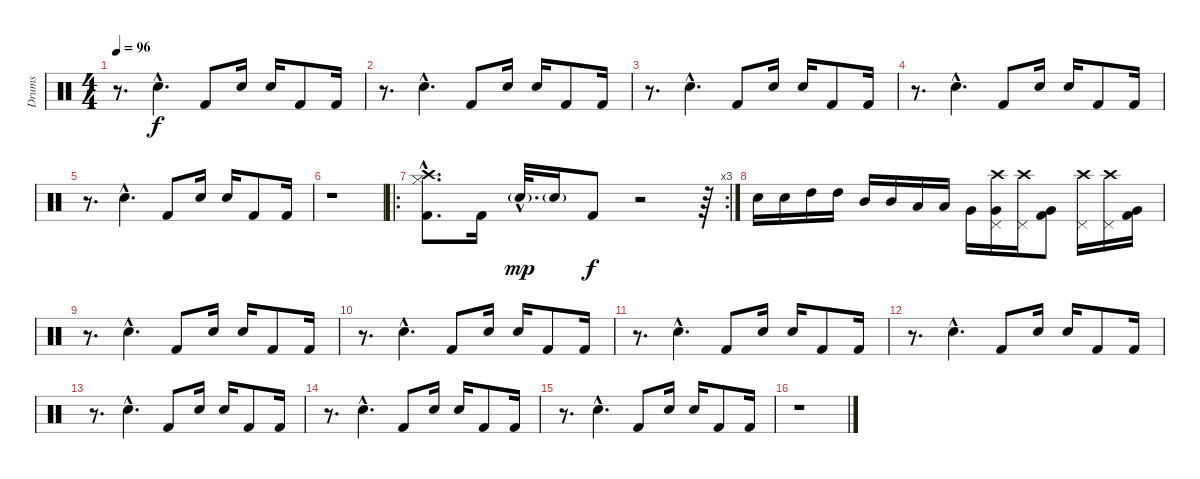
\track ("Drums" "Drums") {instrument percussion}
\staff {score}
\articulation defaults
\ts (4 4)
\tempo 96
\clef neutral
\ks c
r.8{d dy f} "Snare (hit) 2"{hac}.4{d} "Kick (hit) 2".8 "Snare (hit) 2".16 "Snare (hit) 2".16 "Kick (hit) 2".8 "Kick (hit) 2".16 |
r.8{d} "Snare (hit) 2"{hac}.4{d} "Kick (hit) 2".8 "Snare (hit) 2".16 "Snare (hit) 2".16 "Kick (hit) 2".8 "Kick (hit) 2".16 |
r.8{d} "Snare (hit) 2"{hac}.4{d} "Kick (hit) 2".8 "Snare (hit) 2".16 "Snare (hit) 2".16 "Kick (hit) 2".8 "Kick (hit) 2".16 |
r.8{d} "Snare (hit) 2"{hac}.4{d} "Kick (hit) 2".8 "Snare (hit) 2".16 "Snare (hit) 2".16 "Kick (hit) 2".8 "Kick (hit) 2".16 |
r.8{d} "Snare (hit) 2"{hac}.4{d} "Kick (hit) 2".8 "Snare (hit) 2".16 "Snare (hit) 2".16 "Kick (hit) 2".8 "Kick (hit) 2".16 |
r.1 |
\ro
\rc 3
("Kick (hit) 2"{hac} "Crash high (hit)"{hac} "Hi-Hat (closed)"{hac}).8{d} "Kick (hit) 2".16 "Snare (hit) 2"{g hac}.32{d dy mp} "Snare (hit) 2"{g}.16 "Kick (hit) 2".8{dy f} r.2 r.64 |
"Electric Snare (hit)".16 "Electric Snare (hit)".16 "High Tom (hit)".16 "High Tom (hit)".16 "Mid Tom (hit)".16 "Mid Tom (hit)".16 "Low Tom (hit)".16 "Low Tom (hit)".16 "Very Low Tom (hit)".16 ("Very Low Tom (hit)" "Crash high (hit)" "Pedal Hi-Hat (hit)").16 ("Crash high (hit)" "Pedal Hi-Hat (hit)").16 ("Kick (hit) 2" "Very Low Tom (hit)").8 ("Crash high (hit)" "Pedal Hi-Hat (hit)").16 ("Crash high (hit)" "Pedal Hi-Hat (hit)").16 ("Kick (hit) 2" "Very Low Tom (hit)").16 |
r.8{d} "Snare (hit) 2"{hac}.4{d} "Kick (hit) 2".8 "Snare (hit) 2".16 "Snare (hit) 2".16 "Kick (hit) 2".8 "Kick (hit) 2".16 |
r.8{d} "Snare (hit) 2"{hac}.4{d} "Kick (hit) 2".8 "Snare (hit) 2".16 "Snare (hit) 2".16 "Kick (hit) 2".8 "Kick (hit) 2".16 |
r.8{d} "Snare (hit) 2"{hac}.4{d} "Kick (hit) 2".8 "Snare (hit) 2".16 "Snare (hit) 2".16 "Kick (hit) 2".8 "Kick (hit) 2".16 |
r.8{d} "Snare (hit) 2"{hac}.4{d} "Kick (hit) 2".8 "Snare (hit) 2".16 "Snare (hit) 2".16 "Kick (hit) 2".8 "Kick (hit) 2".16 |
r.8{d} "Snare (hit) 2"{hac}.4{d} "Kick (hit) 2".8 "Snare (hit) 2".16 "Snare (hit) 2".16 "Kick (hit) 2".8 "Kick (hit) 2".16 |
r.8{d} "Snare (hit) 2"{hac}.4{d} "Kick (hit) 2".8 "Snare (hit) 2".16 "Snare (hit) 2".16 "Kick (hit) 2".8 "Kick (hit) 2".16 |
r.8{d} "Snare (hit) 2"{hac}.4{d} "Kick (hit) 2".8 "Snare (hit) 2".16 "Snare (hit) 2".16 "Kick (hit) 2".8 "Kick (hit) 2".16 |
r.1
